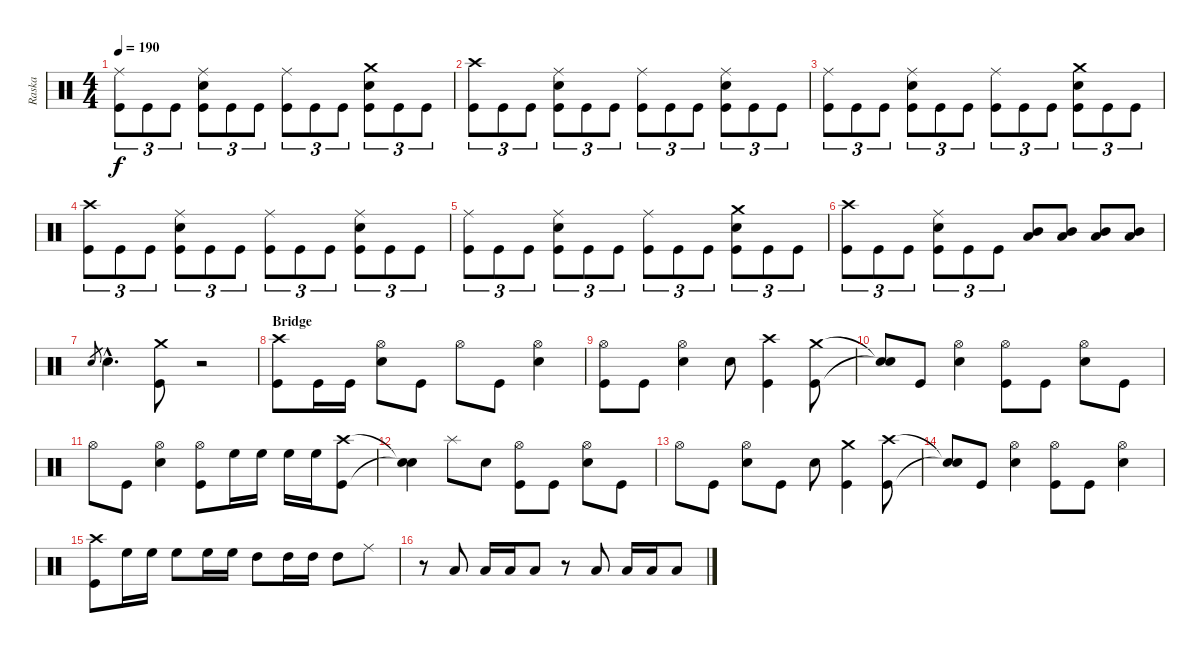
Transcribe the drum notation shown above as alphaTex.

\track ("Raska" "Raska") {instrument percussion}
\staff {score}
\articulation defaults
\ts (4 4)
\tempo 190
\clef neutral
\ks c
("Ride (middle)" "Kick (hit)").8{tu (3 2) dy f} "Kick (hit)".8{tu (3 2)} "Kick (hit)".8{tu (3 2)} ("Ride (middle)" "Electric Snare (hit)" "Kick (hit)").8{tu (3 2)} "Kick (hit)".8{tu (3 2)} "Kick (hit)".8{tu (3 2)} ("Ride (middle)" "Kick (hit)").8{tu (3 2)} "Kick (hit)".8{tu (3 2)} "Kick (hit)".8{tu (3 2)} ("Crash medium (hit)" "Electric Snare (hit)" "Kick (hit)").8{tu (3 2)} "Kick (hit)".8{tu (3 2)} "Kick (hit)".8{tu (3 2)} |
("Crash high (hit)" "Kick (hit)").8{tu (3 2)} "Kick (hit)".8{tu (3 2)} "Kick (hit)".8{tu (3 2)} ("Ride (middle)" "Electric Snare (hit)" "Kick (hit)").8{tu (3 2)} "Kick (hit)".8{tu (3 2)} "Kick (hit)".8{tu (3 2)} ("Ride (middle)" "Kick (hit)").8{tu (3 2)} "Kick (hit)".8{tu (3 2)} "Kick (hit)".8{tu (3 2)} ("Ride (middle)" "Electric Snare (hit)" "Kick (hit)").8{tu (3 2)} "Kick (hit)".8{tu (3 2)} "Kick (hit)".8{tu (3 2)} |
("Ride (middle)" "Kick (hit)").8{tu (3 2)} "Kick (hit)".8{tu (3 2)} "Kick (hit)".8{tu (3 2)} ("Ride (middle)" "Electric Snare (hit)" "Kick (hit)").8{tu (3 2)} "Kick (hit)".8{tu (3 2)} "Kick (hit)".8{tu (3 2)} ("Ride (middle)" "Kick (hit)").8{tu (3 2)} "Kick (hit)".8{tu (3 2)} "Kick (hit)".8{tu (3 2)} ("Crash medium (hit)" "Electric Snare (hit)" "Kick (hit)").8{tu (3 2)} "Kick (hit)".8{tu (3 2)} "Kick (hit)".8{tu (3 2)} |
("Crash high (hit)" "Kick (hit)").8{tu (3 2)} "Kick (hit)".8{tu (3 2)} "Kick (hit)".8{tu (3 2)} ("Ride (middle)" "Electric Snare (hit)" "Kick (hit)").8{tu (3 2)} "Kick (hit)".8{tu (3 2)} "Kick (hit)".8{tu (3 2)} ("Ride (middle)" "Kick (hit)").8{tu (3 2)} "Kick (hit)".8{tu (3 2)} "Kick (hit)".8{tu (3 2)} ("Ride (middle)" "Electric Snare (hit)" "Kick (hit)").8{tu (3 2)} "Kick (hit)".8{tu (3 2)} "Kick (hit)".8{tu (3 2)} |
("Ride (middle)" "Kick (hit)").8{tu (3 2)} "Kick (hit)".8{tu (3 2)} "Kick (hit)".8{tu (3 2)} ("Ride (middle)" "Electric Snare (hit)" "Kick (hit)").8{tu (3 2)} "Kick (hit)".8{tu (3 2)} "Kick (hit)".8{tu (3 2)} ("Ride (middle)" "Kick (hit)").8{tu (3 2)} "Kick (hit)".8{tu (3 2)} "Kick (hit)".8{tu (3 2)} ("Crash medium (hit)" "Electric Snare (hit)" "Kick (hit)").8{tu (3 2)} "Kick (hit)".8{tu (3 2)} "Kick (hit)".8{tu (3 2)} |
("Crash high (hit)" "Kick (hit)").8{tu (3 2)} "Kick (hit)".8{tu (3 2)} "Kick (hit)".8{tu (3 2)} ("Ride (middle)" "Electric Snare (hit)" "Kick (hit)").8{tu (3 2)} "Kick (hit)".8{tu (3 2)} "Kick (hit)".8{tu (3 2)} ("Mid Tom (hit)" "Low Tom (hit)").8 ("Mid Tom (hit)" "Low Tom (hit)").8 ("Mid Tom (hit)" "Low Tom (hit)").8 ("Mid Tom (hit)" "Low Tom (hit)").8 |
"Electric Snare (hit)".8{gr} "Electric Snare (hit)"{hac}.4{d} ("Crash medium (hit)" "Kick (hit)").8 r.2 |
\section ("" "Bridge")
("Crash high (hit)" "Kick (hit)").8 "Kick (hit)".16 "Kick (hit)".16 ("Hi-Hat (open)" "Electric Snare (hit)").8 "Kick (hit)".8 "Hi-Hat (open)".8 "Kick (hit)".8 ("Hi-Hat (open)" "Electric Snare (hit)").4 |
("Hi-Hat (open)" "Kick (hit)").8 "Kick (hit)".8 ("Hi-Hat (open)" "Electric Snare (hit)").4 "Electric Snare (hit)".8 ("Crash high (hit)" "Kick (hit)").4 ("Crash medium (hit)" "Kick (hit)").8 |
("Snare (hit)"{t} "Snare (hit)"{t}).8 "Kick (hit)".8 ("Hi-Hat (open)" "Electric Snare (hit)").4 ("Hi-Hat (open)" "Kick (hit)").8 "Kick (hit)".8 ("Hi-Hat (open)" "Electric Snare (hit)").8 "Kick (hit)".8 |
"Hi-Hat (open)".8 "Kick (hit)".8 ("Hi-Hat (open)" "Electric Snare (hit)").4 ("Hi-Hat (open)" "Kick (hit)").8 "High Floor Tom (hit)".16 "High Floor Tom (hit)".16 "High Floor Tom (hit)".16 "High Floor Tom (hit)".16 ("Crash high (hit)" "Kick (hit)").8 |
("Snare (hit)"{t} "Snare (hit)"{t}).4 "Splash (hit)".8 "Electric Snare (hit)".8 ("Hi-Hat (open)" "Kick (hit)").8 "Kick (hit)".8 ("Hi-Hat (open)" "Electric Snare (hit)").8 "Kick (hit)".8 |
"Hi-Hat (open)".8 "Kick (hit)".8 ("Hi-Hat (open)" "Electric Snare (hit)").8 "Kick (hit)".8 "Electric Snare (hit)".8 ("Crash medium (hit)" "Kick (hit)").4 ("Crash high (hit)" "Kick (hit)").8 |
("Snare (hit)"{t} "Snare (hit)"{t}).8 "Kick (hit)".8 ("Hi-Hat (open)" "Electric Snare (hit)").4 ("Hi-Hat (open)" "Kick (hit)").8 "Kick (hit)".8 ("Hi-Hat (open)" "Electric Snare (hit)").4 |
("Crash high (hit)" "Kick (hit)").8 "High Floor Tom (hit)".16 "High Floor Tom (hit)".16 "High Floor Tom (hit)".8 "High Floor Tom (hit)".16 "High Floor Tom (hit)".16 "High Tom (hit)".8 "High Tom (hit)".16 "High Tom (hit)".16 "High Tom (hit)".8 "Ride (middle)".8 |
r.8 "Low Tom (hit)".8 "Low Tom (hit)".16 "Low Tom (hit)".16 "Low Tom (hit)".8 r.8 "Low Tom (hit)".8 "Low Tom (hit)".16 "Low Tom (hit)".16 "Low Tom (hit)".8
